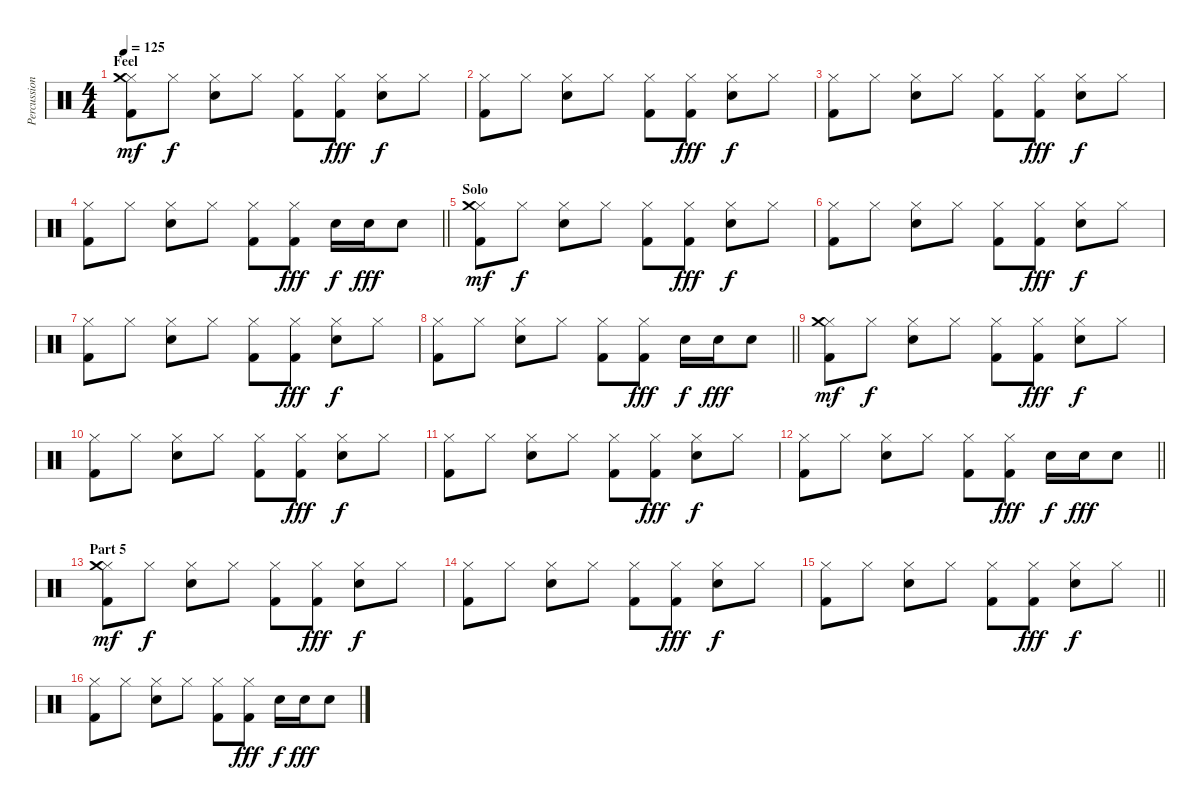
\track ("Percussion" "Percussion") {instrument percussion}
\staff {score}
\articulation defaults
\ts (4 4)
\section ("" "Feel")
\tempo 125
\clef neutral
\ks c
("Hi-Hat (closed)" "Kick (hit) 2" "Crash medium (hit)").8{dy mf} "Hi-Hat (closed)".8{dy f} ("Hi-Hat (closed)" "Electric Snare (hit)").8 "Hi-Hat (closed)".8 ("Hi-Hat (closed)" "Kick (hit) 2").8 ("Hi-Hat (closed)" "Kick (hit) 2").8{dy fff} ("Hi-Hat (closed)" "Electric Snare (hit)").8{dy f} "Hi-Hat (closed)".8 |
("Hi-Hat (closed)" "Kick (hit) 2").8 "Hi-Hat (closed)".8 ("Hi-Hat (closed)" "Electric Snare (hit)").8 "Hi-Hat (closed)".8 ("Hi-Hat (closed)" "Kick (hit) 2").8 ("Hi-Hat (closed)" "Kick (hit) 2").8{dy fff} ("Hi-Hat (closed)" "Electric Snare (hit)").8{dy f} "Hi-Hat (closed)".8 |
("Hi-Hat (closed)" "Kick (hit) 2").8 "Hi-Hat (closed)".8 ("Hi-Hat (closed)" "Electric Snare (hit)").8 "Hi-Hat (closed)".8 ("Hi-Hat (closed)" "Kick (hit) 2").8 ("Hi-Hat (closed)" "Kick (hit) 2").8{dy fff} ("Hi-Hat (closed)" "Electric Snare (hit)").8{dy f} "Hi-Hat (closed)".8 |
\barLineRight lightlight
("Hi-Hat (closed)" "Kick (hit) 2").8 "Hi-Hat (closed)".8 ("Hi-Hat (closed)" "Electric Snare (hit)").8 "Hi-Hat (closed)".8 ("Hi-Hat (closed)" "Kick (hit) 2").8 ("Hi-Hat (closed)" "Kick (hit) 2").8{dy fff} "Electric Snare (hit)".16{dy f} "Electric Snare (hit)".16{dy fff} "Electric Snare (hit)".8 |
\section ("" "Solo ")
("Hi-Hat (closed)" "Kick (hit) 2" "Crash medium (hit)").8{dy mf} "Hi-Hat (closed)".8{dy f} ("Hi-Hat (closed)" "Electric Snare (hit)").8 "Hi-Hat (closed)".8 ("Hi-Hat (closed)" "Kick (hit) 2").8 ("Hi-Hat (closed)" "Kick (hit) 2").8{dy fff} ("Hi-Hat (closed)" "Electric Snare (hit)").8{dy f} "Hi-Hat (closed)".8 |
("Hi-Hat (closed)" "Kick (hit) 2").8 "Hi-Hat (closed)".8 ("Hi-Hat (closed)" "Electric Snare (hit)").8 "Hi-Hat (closed)".8 ("Hi-Hat (closed)" "Kick (hit) 2").8 ("Hi-Hat (closed)" "Kick (hit) 2").8{dy fff} ("Hi-Hat (closed)" "Electric Snare (hit)").8{dy f} "Hi-Hat (closed)".8 |
("Hi-Hat (closed)" "Kick (hit) 2").8 "Hi-Hat (closed)".8 ("Hi-Hat (closed)" "Electric Snare (hit)").8 "Hi-Hat (closed)".8 ("Hi-Hat (closed)" "Kick (hit) 2").8 ("Hi-Hat (closed)" "Kick (hit) 2").8{dy fff} ("Hi-Hat (closed)" "Electric Snare (hit)").8{dy f} "Hi-Hat (closed)".8 |
\barLineRight lightlight
("Hi-Hat (closed)" "Kick (hit) 2").8 "Hi-Hat (closed)".8 ("Hi-Hat (closed)" "Electric Snare (hit)").8 "Hi-Hat (closed)".8 ("Hi-Hat (closed)" "Kick (hit) 2").8 ("Hi-Hat (closed)" "Kick (hit) 2").8{dy fff} "Electric Snare (hit)".16{dy f} "Electric Snare (hit)".16{dy fff} "Electric Snare (hit)".8 |
("Hi-Hat (closed)" "Kick (hit) 2" "Crash medium (hit)").8{dy mf} "Hi-Hat (closed)".8{dy f} ("Hi-Hat (closed)" "Electric Snare (hit)").8 "Hi-Hat (closed)".8 ("Hi-Hat (closed)" "Kick (hit) 2").8 ("Hi-Hat (closed)" "Kick (hit) 2").8{dy fff} ("Hi-Hat (closed)" "Electric Snare (hit)").8{dy f} "Hi-Hat (closed)".8 |
("Hi-Hat (closed)" "Kick (hit) 2").8 "Hi-Hat (closed)".8 ("Hi-Hat (closed)" "Electric Snare (hit)").8 "Hi-Hat (closed)".8 ("Hi-Hat (closed)" "Kick (hit) 2").8 ("Hi-Hat (closed)" "Kick (hit) 2").8{dy fff} ("Hi-Hat (closed)" "Electric Snare (hit)").8{dy f} "Hi-Hat (closed)".8 |
("Hi-Hat (closed)" "Kick (hit) 2").8 "Hi-Hat (closed)".8 ("Hi-Hat (closed)" "Electric Snare (hit)").8 "Hi-Hat (closed)".8 ("Hi-Hat (closed)" "Kick (hit) 2").8 ("Hi-Hat (closed)" "Kick (hit) 2").8{dy fff} ("Hi-Hat (closed)" "Electric Snare (hit)").8{dy f} "Hi-Hat (closed)".8 |
\barLineRight lightlight
("Hi-Hat (closed)" "Kick (hit) 2").8 "Hi-Hat (closed)".8 ("Hi-Hat (closed)" "Electric Snare (hit)").8 "Hi-Hat (closed)".8 ("Hi-Hat (closed)" "Kick (hit) 2").8 ("Hi-Hat (closed)" "Kick (hit) 2").8{dy fff} "Electric Snare (hit)".16{dy f} "Electric Snare (hit)".16{dy fff} "Electric Snare (hit)".8 |
\section ("" "Part 5")
("Hi-Hat (closed)" "Kick (hit) 2" "Crash medium (hit)").8{dy mf} "Hi-Hat (closed)".8{dy f} ("Hi-Hat (closed)" "Electric Snare (hit)").8 "Hi-Hat (closed)".8 ("Hi-Hat (closed)" "Kick (hit) 2").8 ("Hi-Hat (closed)" "Kick (hit) 2").8{dy fff} ("Hi-Hat (closed)" "Electric Snare (hit)").8{dy f} "Hi-Hat (closed)".8 |
("Hi-Hat (closed)" "Kick (hit) 2").8 "Hi-Hat (closed)".8 ("Hi-Hat (closed)" "Electric Snare (hit)").8 "Hi-Hat (closed)".8 ("Hi-Hat (closed)" "Kick (hit) 2").8 ("Hi-Hat (closed)" "Kick (hit) 2").8{dy fff} ("Hi-Hat (closed)" "Electric Snare (hit)").8{dy f} "Hi-Hat (closed)".8 |
\barLineRight lightlight
("Hi-Hat (closed)" "Kick (hit) 2").8 "Hi-Hat (closed)".8 ("Hi-Hat (closed)" "Electric Snare (hit)").8 "Hi-Hat (closed)".8 ("Hi-Hat (closed)" "Kick (hit) 2").8 ("Hi-Hat (closed)" "Kick (hit) 2").8{dy fff} ("Hi-Hat (closed)" "Electric Snare (hit)").8{dy f} "Hi-Hat (closed)".8 |
("Hi-Hat (closed)" "Kick (hit) 2").8 "Hi-Hat (closed)".8 ("Hi-Hat (closed)" "Electric Snare (hit)").8 "Hi-Hat (closed)".8 ("Hi-Hat (closed)" "Kick (hit) 2").8 ("Hi-Hat (closed)" "Kick (hit) 2").8{dy fff} "Electric Snare (hit)".16{dy f} "Electric Snare (hit)".16{dy fff} "Electric Snare (hit)".8
